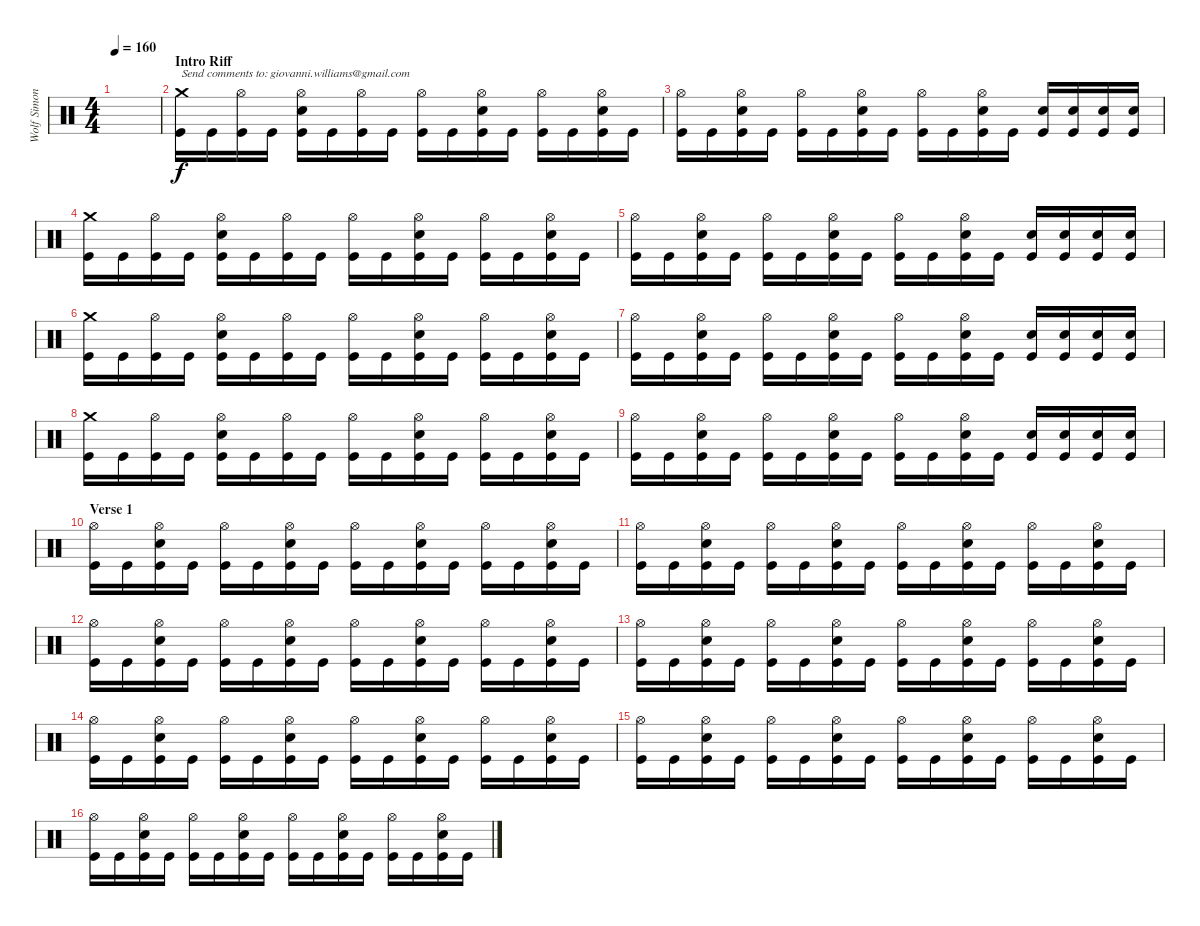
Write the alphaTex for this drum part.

\track ("Wolf Simons" "Wolf Simon") {instrument percussion}
\staff {score}
\articulation defaults
\ts (4 4)
\tempo 160
\clef neutral
\ks c
|
\section ("" "Intro Riff")
("Crash medium (hit)" "Kick (hit)").16{txt "Send comments to: giovanni.williams@gmail.com"} "Kick (hit)".16 ("Hi-Hat (open)" "Kick (hit)").16 "Kick (hit)".16 ("Hi-Hat (open)" "Electric Snare (hit)" "Kick (hit)").16 "Kick (hit)".16 ("Hi-Hat (open)" "Kick (hit)").16 "Kick (hit)".16 ("Hi-Hat (open)" "Kick (hit)").16 "Kick (hit)".16 ("Hi-Hat (open)" "Electric Snare (hit)" "Kick (hit)").16 "Kick (hit)".16 ("Hi-Hat (open)" "Kick (hit)").16 "Kick (hit)".16 ("Hi-Hat (open)" "Electric Snare (hit)" "Kick (hit)").16 "Kick (hit)".16 |
("Hi-Hat (open)" "Kick (hit)").16 "Kick (hit)".16 ("Hi-Hat (open)" "Electric Snare (hit)" "Kick (hit)").16 "Kick (hit)".16 ("Hi-Hat (open)" "Kick (hit)").16 "Kick (hit)".16 ("Hi-Hat (open)" "Electric Snare (hit)" "Kick (hit)").16 "Kick (hit)".16 ("Hi-Hat (open)" "Kick (hit)").16 "Kick (hit)".16 ("Hi-Hat (open)" "Electric Snare (hit)" "Kick (hit)").16 "Kick (hit)".16 ("Electric Snare (hit)" "Kick (hit)").16 ("Electric Snare (hit)" "Kick (hit)").16 ("Electric Snare (hit)" "Kick (hit)").16 ("Electric Snare (hit)" "Kick (hit)").16 |
("Crash medium (hit)" "Kick (hit)").16 "Kick (hit)".16 ("Hi-Hat (open)" "Kick (hit)").16 "Kick (hit)".16 ("Hi-Hat (open)" "Electric Snare (hit)" "Kick (hit)").16 "Kick (hit)".16 ("Hi-Hat (open)" "Kick (hit)").16 "Kick (hit)".16 ("Hi-Hat (open)" "Kick (hit)").16 "Kick (hit)".16 ("Hi-Hat (open)" "Electric Snare (hit)" "Kick (hit)").16 "Kick (hit)".16 ("Hi-Hat (open)" "Kick (hit)").16 "Kick (hit)".16 ("Hi-Hat (open)" "Electric Snare (hit)" "Kick (hit)").16 "Kick (hit)".16 |
("Hi-Hat (open)" "Kick (hit)").16 "Kick (hit)".16 ("Hi-Hat (open)" "Electric Snare (hit)" "Kick (hit)").16 "Kick (hit)".16 ("Hi-Hat (open)" "Kick (hit)").16 "Kick (hit)".16 ("Hi-Hat (open)" "Electric Snare (hit)" "Kick (hit)").16 "Kick (hit)".16 ("Hi-Hat (open)" "Kick (hit)").16 "Kick (hit)".16 ("Hi-Hat (open)" "Electric Snare (hit)" "Kick (hit)").16 "Kick (hit)".16 ("Electric Snare (hit)" "Kick (hit)").16 ("Electric Snare (hit)" "Kick (hit)").16 ("Electric Snare (hit)" "Kick (hit)").16 ("Electric Snare (hit)" "Kick (hit)").16 |
("Crash medium (hit)" "Kick (hit)").16 "Kick (hit)".16 ("Hi-Hat (open)" "Kick (hit)").16 "Kick (hit)".16 ("Hi-Hat (open)" "Electric Snare (hit)" "Kick (hit)").16 "Kick (hit)".16 ("Hi-Hat (open)" "Kick (hit)").16 "Kick (hit)".16 ("Hi-Hat (open)" "Kick (hit)").16 "Kick (hit)".16 ("Hi-Hat (open)" "Electric Snare (hit)" "Kick (hit)").16 "Kick (hit)".16 ("Hi-Hat (open)" "Kick (hit)").16 "Kick (hit)".16 ("Hi-Hat (open)" "Electric Snare (hit)" "Kick (hit)").16 "Kick (hit)".16 |
("Hi-Hat (open)" "Kick (hit)").16 "Kick (hit)".16 ("Hi-Hat (open)" "Electric Snare (hit)" "Kick (hit)").16 "Kick (hit)".16 ("Hi-Hat (open)" "Kick (hit)").16 "Kick (hit)".16 ("Hi-Hat (open)" "Electric Snare (hit)" "Kick (hit)").16 "Kick (hit)".16 ("Hi-Hat (open)" "Kick (hit)").16 "Kick (hit)".16 ("Hi-Hat (open)" "Electric Snare (hit)" "Kick (hit)").16 "Kick (hit)".16 ("Electric Snare (hit)" "Kick (hit)").16 ("Electric Snare (hit)" "Kick (hit)").16 ("Electric Snare (hit)" "Kick (hit)").16 ("Electric Snare (hit)" "Kick (hit)").16 |
("Crash medium (hit)" "Kick (hit)").16 "Kick (hit)".16 ("Hi-Hat (open)" "Kick (hit)").16 "Kick (hit)".16 ("Hi-Hat (open)" "Electric Snare (hit)" "Kick (hit)").16 "Kick (hit)".16 ("Hi-Hat (open)" "Kick (hit)").16 "Kick (hit)".16 ("Hi-Hat (open)" "Kick (hit)").16 "Kick (hit)".16 ("Hi-Hat (open)" "Electric Snare (hit)" "Kick (hit)").16 "Kick (hit)".16 ("Hi-Hat (open)" "Kick (hit)").16 "Kick (hit)".16 ("Hi-Hat (open)" "Electric Snare (hit)" "Kick (hit)").16 "Kick (hit)".16 |
("Hi-Hat (open)" "Kick (hit)").16 "Kick (hit)".16 ("Hi-Hat (open)" "Electric Snare (hit)" "Kick (hit)").16 "Kick (hit)".16 ("Hi-Hat (open)" "Kick (hit)").16 "Kick (hit)".16 ("Hi-Hat (open)" "Electric Snare (hit)" "Kick (hit)").16 "Kick (hit)".16 ("Hi-Hat (open)" "Kick (hit)").16 "Kick (hit)".16 ("Hi-Hat (open)" "Electric Snare (hit)" "Kick (hit)").16 "Kick (hit)".16 ("Electric Snare (hit)" "Kick (hit)").16 ("Electric Snare (hit)" "Kick (hit)").16 ("Electric Snare (hit)" "Kick (hit)").16 ("Electric Snare (hit)" "Kick (hit)").16 |
\section ("" "Verse 1")
("Hi-Hat (open)" "Kick (hit)").16 "Kick (hit)".16 ("Hi-Hat (open)" "Electric Snare (hit)" "Kick (hit)").16 "Kick (hit)".16 ("Hi-Hat (open)" "Kick (hit)").16 "Kick (hit)".16 ("Hi-Hat (open)" "Electric Snare (hit)" "Kick (hit)").16 "Kick (hit)".16 ("Hi-Hat (open)" "Kick (hit)").16 "Kick (hit)".16 ("Hi-Hat (open)" "Electric Snare (hit)" "Kick (hit)").16 "Kick (hit)".16 ("Hi-Hat (open)" "Kick (hit)").16 "Kick (hit)".16 ("Hi-Hat (open)" "Electric Snare (hit)" "Kick (hit)").16 "Kick (hit)".16 |
("Hi-Hat (open)" "Kick (hit)").16 "Kick (hit)".16 ("Hi-Hat (open)" "Electric Snare (hit)" "Kick (hit)").16 "Kick (hit)".16 ("Hi-Hat (open)" "Kick (hit)").16 "Kick (hit)".16 ("Hi-Hat (open)" "Electric Snare (hit)" "Kick (hit)").16 "Kick (hit)".16 ("Hi-Hat (open)" "Kick (hit)").16 "Kick (hit)".16 ("Hi-Hat (open)" "Electric Snare (hit)" "Kick (hit)").16 "Kick (hit)".16 ("Hi-Hat (open)" "Kick (hit)").16 "Kick (hit)".16 ("Hi-Hat (open)" "Electric Snare (hit)" "Kick (hit)").16 "Kick (hit)".16 |
("Hi-Hat (open)" "Kick (hit)").16 "Kick (hit)".16 ("Hi-Hat (open)" "Electric Snare (hit)" "Kick (hit)").16 "Kick (hit)".16 ("Hi-Hat (open)" "Kick (hit)").16 "Kick (hit)".16 ("Hi-Hat (open)" "Electric Snare (hit)" "Kick (hit)").16 "Kick (hit)".16 ("Hi-Hat (open)" "Kick (hit)").16 "Kick (hit)".16 ("Hi-Hat (open)" "Electric Snare (hit)" "Kick (hit)").16 "Kick (hit)".16 ("Hi-Hat (open)" "Kick (hit)").16 "Kick (hit)".16 ("Hi-Hat (open)" "Electric Snare (hit)" "Kick (hit)").16 "Kick (hit)".16 |
("Hi-Hat (open)" "Kick (hit)").16 "Kick (hit)".16 ("Hi-Hat (open)" "Electric Snare (hit)" "Kick (hit)").16 "Kick (hit)".16 ("Hi-Hat (open)" "Kick (hit)").16 "Kick (hit)".16 ("Hi-Hat (open)" "Electric Snare (hit)" "Kick (hit)").16 "Kick (hit)".16 ("Hi-Hat (open)" "Kick (hit)").16 "Kick (hit)".16 ("Hi-Hat (open)" "Electric Snare (hit)" "Kick (hit)").16 "Kick (hit)".16 ("Hi-Hat (open)" "Kick (hit)").16 "Kick (hit)".16 ("Hi-Hat (open)" "Electric Snare (hit)" "Kick (hit)").16 "Kick (hit)".16 |
("Hi-Hat (open)" "Kick (hit)").16 "Kick (hit)".16 ("Hi-Hat (open)" "Electric Snare (hit)" "Kick (hit)").16 "Kick (hit)".16 ("Hi-Hat (open)" "Kick (hit)").16 "Kick (hit)".16 ("Hi-Hat (open)" "Electric Snare (hit)" "Kick (hit)").16 "Kick (hit)".16 ("Hi-Hat (open)" "Kick (hit)").16 "Kick (hit)".16 ("Hi-Hat (open)" "Electric Snare (hit)" "Kick (hit)").16 "Kick (hit)".16 ("Hi-Hat (open)" "Kick (hit)").16 "Kick (hit)".16 ("Hi-Hat (open)" "Electric Snare (hit)" "Kick (hit)").16 "Kick (hit)".16 |
("Hi-Hat (open)" "Kick (hit)").16 "Kick (hit)".16 ("Hi-Hat (open)" "Electric Snare (hit)" "Kick (hit)").16 "Kick (hit)".16 ("Hi-Hat (open)" "Kick (hit)").16 "Kick (hit)".16 ("Hi-Hat (open)" "Electric Snare (hit)" "Kick (hit)").16 "Kick (hit)".16 ("Hi-Hat (open)" "Kick (hit)").16 "Kick (hit)".16 ("Hi-Hat (open)" "Electric Snare (hit)" "Kick (hit)").16 "Kick (hit)".16 ("Hi-Hat (open)" "Kick (hit)").16 "Kick (hit)".16 ("Hi-Hat (open)" "Electric Snare (hit)" "Kick (hit)").16 "Kick (hit)".16 |
("Hi-Hat (open)" "Kick (hit)").16 "Kick (hit)".16 ("Hi-Hat (open)" "Electric Snare (hit)" "Kick (hit)").16 "Kick (hit)".16 ("Hi-Hat (open)" "Kick (hit)").16 "Kick (hit)".16 ("Hi-Hat (open)" "Electric Snare (hit)" "Kick (hit)").16 "Kick (hit)".16 ("Hi-Hat (open)" "Kick (hit)").16 "Kick (hit)".16 ("Hi-Hat (open)" "Electric Snare (hit)" "Kick (hit)").16 "Kick (hit)".16 ("Hi-Hat (open)" "Kick (hit)").16 "Kick (hit)".16 ("Hi-Hat (open)" "Electric Snare (hit)" "Kick (hit)").16 "Kick (hit)".16
